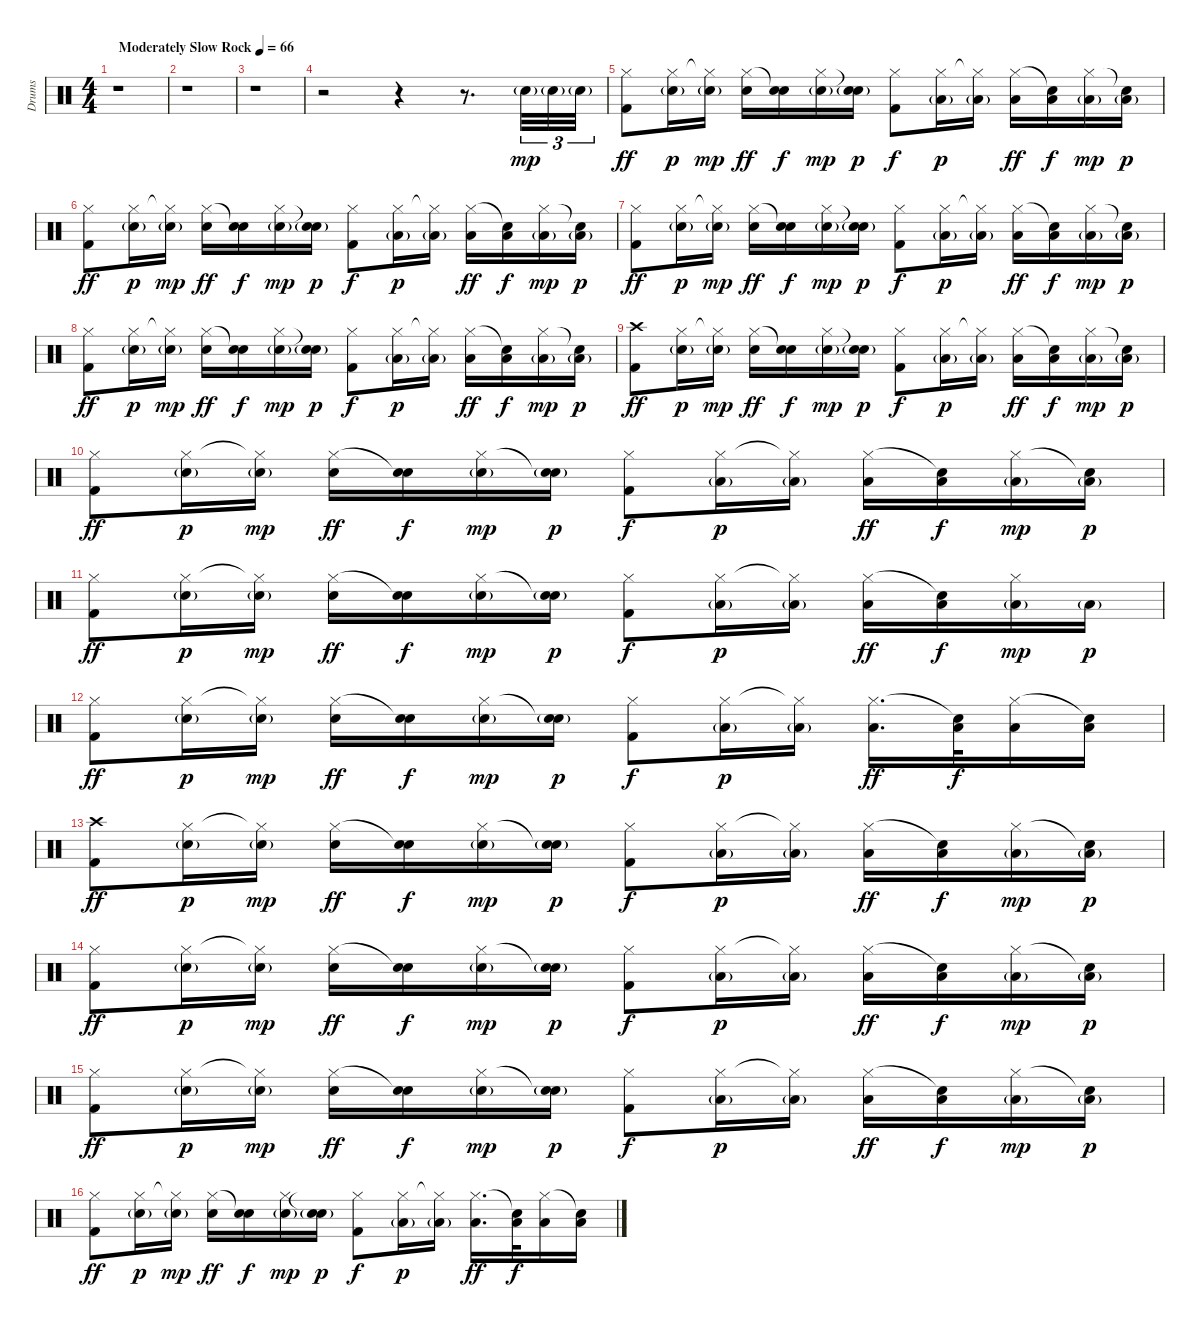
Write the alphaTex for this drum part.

\track ("Drums" "Drums") {instrument percussion}
\staff {score}
\articulation defaults
\ts (4 4)
\tempo (66 "Moderately Slow Rock")
\clef neutral
\ks c
r.1{dy mp} |
r.1 |
r.1 |
r.2 r.4 r.8{d} "Snare (hit) 2"{g}.32{tu (3 2)} "Snare (hit) 2"{g}.32{tu (3 2)} "Snare (hit) 2"{g}.32{tu (3 2)} |
("Hi-Hat (closed)" "Kick (hit) 2").8{dy ff} ("Hi-Hat (closed)" "Snare (hit) 2"{g}).16{dy p} ("Hi-Hat (closed)"{t} "Snare (hit) 2"{g}).16{dy mp} ("Hi-Hat (closed)" "Snare (hit) 2").16{dy ff} ("Snare (hit)"{t} "Snare (hit) 2").16{dy f} ("Hi-Hat (closed)" "Snare (hit) 2"{g}).16{dy mp} ("Snare (hit)"{t} "Snare (hit) 2"{g}).16{dy p} ("Hi-Hat (closed)" "Kick (hit) 2").8{dy f} ("Hi-Hat (closed)" "Low Floor Tom (hit)"{g}).16{dy p} ("Hi-Hat (closed)"{t} "Low Floor Tom (hit)"{g}).16 ("Hi-Hat (closed)" "Low Floor Tom (hit)").16{dy ff} ("Snare (hit)"{t} "Low Floor Tom (hit)").16{dy f} ("Hi-Hat (closed)" "Low Floor Tom (hit)"{g}).16{dy mp} ("Snare (hit)"{t} "Low Floor Tom (hit)"{g}).16{dy p} |
("Hi-Hat (closed)" "Kick (hit) 2").8{dy ff} ("Hi-Hat (closed)" "Snare (hit) 2"{g}).16{dy p} ("Hi-Hat (closed)"{t} "Snare (hit) 2"{g}).16{dy mp} ("Hi-Hat (closed)" "Snare (hit) 2").16{dy ff} ("Snare (hit)"{t} "Snare (hit) 2").16{dy f} ("Hi-Hat (closed)" "Snare (hit) 2"{g}).16{dy mp} ("Snare (hit)"{t} "Snare (hit) 2"{g}).16{dy p} ("Hi-Hat (closed)" "Kick (hit) 2").8{dy f} ("Hi-Hat (closed)" "Low Floor Tom (hit)"{g}).16{dy p} ("Hi-Hat (closed)"{t} "Low Floor Tom (hit)"{g}).16 ("Hi-Hat (closed)" "Low Floor Tom (hit)").16{dy ff} ("Snare (hit)"{t} "Low Floor Tom (hit)").16{dy f} ("Hi-Hat (closed)" "Low Floor Tom (hit)"{g}).16{dy mp} ("Snare (hit)"{t} "Low Floor Tom (hit)"{g}).16{dy p} |
("Hi-Hat (closed)" "Kick (hit) 2").8{dy ff} ("Hi-Hat (closed)" "Snare (hit) 2"{g}).16{dy p} ("Hi-Hat (closed)"{t} "Snare (hit) 2"{g}).16{dy mp} ("Hi-Hat (closed)" "Snare (hit) 2").16{dy ff} ("Snare (hit)"{t} "Snare (hit) 2").16{dy f} ("Hi-Hat (closed)" "Snare (hit) 2"{g}).16{dy mp} ("Snare (hit)"{t} "Snare (hit) 2"{g}).16{dy p} ("Hi-Hat (closed)" "Kick (hit) 2").8{dy f} ("Hi-Hat (closed)" "Low Floor Tom (hit)"{g}).16{dy p} ("Hi-Hat (closed)"{t} "Low Floor Tom (hit)"{g}).16 ("Hi-Hat (closed)" "Low Floor Tom (hit)").16{dy ff} ("Snare (hit)"{t} "Low Floor Tom (hit)").16{dy f} ("Hi-Hat (closed)" "Low Floor Tom (hit)"{g}).16{dy mp} ("Snare (hit)"{t} "Low Floor Tom (hit)"{g}).16{dy p} |
("Hi-Hat (closed)" "Kick (hit) 2").8{dy ff} ("Hi-Hat (closed)" "Snare (hit) 2"{g}).16{dy p} ("Hi-Hat (closed)"{t} "Snare (hit) 2"{g}).16{dy mp} ("Hi-Hat (closed)" "Snare (hit) 2").16{dy ff} ("Snare (hit)"{t} "Snare (hit) 2").16{dy f} ("Hi-Hat (closed)" "Snare (hit) 2"{g}).16{dy mp} ("Snare (hit)"{t} "Snare (hit) 2"{g}).16{dy p} ("Hi-Hat (closed)" "Kick (hit) 2").8{dy f} ("Hi-Hat (closed)" "Low Floor Tom (hit)"{g}).16{dy p} ("Hi-Hat (closed)"{t} "Low Floor Tom (hit)"{g}).16 ("Hi-Hat (closed)" "Low Floor Tom (hit)").16{dy ff} ("Snare (hit)"{t} "Low Floor Tom (hit)").16{dy f} ("Hi-Hat (closed)" "Low Floor Tom (hit)"{g}).16{dy mp} ("Snare (hit)"{t} "Low Floor Tom (hit)"{g}).16{dy p} |
("Crash high (hit)" "Kick (hit) 2").8{dy ff} ("Hi-Hat (closed)" "Snare (hit) 2"{g}).16{dy p} ("Hi-Hat (closed)"{t} "Snare (hit) 2"{g}).16{dy mp} ("Hi-Hat (closed)" "Snare (hit) 2").16{dy ff} ("Snare (hit)"{t} "Snare (hit) 2").16{dy f} ("Hi-Hat (closed)" "Snare (hit) 2"{g}).16{dy mp} ("Snare (hit)"{t} "Snare (hit) 2"{g}).16{dy p} ("Hi-Hat (closed)" "Kick (hit) 2").8{dy f} ("Hi-Hat (closed)" "Low Floor Tom (hit)"{g}).16{dy p} ("Hi-Hat (closed)"{t} "Low Floor Tom (hit)"{g}).16 ("Hi-Hat (closed)" "Low Floor Tom (hit)").16{dy ff} ("Snare (hit)"{t} "Low Floor Tom (hit)").16{dy f} ("Hi-Hat (closed)" "Low Floor Tom (hit)"{g}).16{dy mp} ("Snare (hit)"{t} "Low Floor Tom (hit)"{g}).16{dy p} |
("Hi-Hat (closed)" "Kick (hit) 2").8{dy ff} ("Hi-Hat (closed)" "Snare (hit) 2"{g}).16{dy p} ("Hi-Hat (closed)"{t} "Snare (hit) 2"{g}).16{dy mp} ("Hi-Hat (closed)" "Snare (hit) 2").16{dy ff} ("Snare (hit)"{t} "Snare (hit) 2").16{dy f} ("Hi-Hat (closed)" "Snare (hit) 2"{g}).16{dy mp} ("Snare (hit)"{t} "Snare (hit) 2"{g}).16{dy p} ("Hi-Hat (closed)" "Kick (hit) 2").8{dy f} ("Hi-Hat (closed)" "Low Floor Tom (hit)"{g}).16{dy p} ("Hi-Hat (closed)"{t} "Low Floor Tom (hit)"{g}).16 ("Hi-Hat (closed)" "Low Floor Tom (hit)").16{dy ff} ("Snare (hit)"{t} "Low Floor Tom (hit)").16{dy f} ("Hi-Hat (closed)" "Low Floor Tom (hit)"{g}).16{dy mp} ("Snare (hit)"{t} "Low Floor Tom (hit)"{g}).16{dy p} |
("Hi-Hat (closed)" "Kick (hit) 2").8{dy ff} ("Hi-Hat (closed)" "Snare (hit) 2"{g}).16{dy p} ("Hi-Hat (closed)"{t} "Snare (hit) 2"{g}).16{dy mp} ("Hi-Hat (closed)" "Snare (hit) 2").16{dy ff} ("Snare (hit)"{t} "Snare (hit) 2").16{dy f} ("Hi-Hat (closed)" "Snare (hit) 2"{g}).16{dy mp} ("Snare (hit)"{t} "Snare (hit) 2"{g}).16{dy p} ("Hi-Hat (closed)" "Kick (hit) 2").8{dy f} ("Hi-Hat (closed)" "Low Floor Tom (hit)"{g}).16{dy p} ("Hi-Hat (closed)"{t} "Low Floor Tom (hit)"{g}).16 ("Hi-Hat (closed)" "Low Floor Tom (hit)").16{dy ff} ("Snare (hit)"{t} "Low Floor Tom (hit)").16{dy f} ("Hi-Hat (closed)" "Low Floor Tom (hit)"{g}).16{dy mp} "Low Floor Tom (hit)"{g}.16{dy p} |
("Hi-Hat (closed)" "Kick (hit) 2").8{dy ff} ("Hi-Hat (closed)" "Snare (hit) 2"{g}).16{dy p} ("Hi-Hat (closed)"{t} "Snare (hit) 2"{g}).16{dy mp} ("Hi-Hat (closed)" "Snare (hit) 2").16{dy ff} ("Snare (hit)"{t} "Snare (hit) 2").16{dy f} ("Hi-Hat (closed)" "Snare (hit) 2"{g}).16{dy mp} ("Snare (hit)"{t} "Snare (hit) 2"{g}).16{dy p} ("Hi-Hat (closed)" "Kick (hit) 2").8{dy f} ("Hi-Hat (closed)" "Low Floor Tom (hit)"{g}).16{dy p} ("Hi-Hat (closed)"{t} "Low Floor Tom (hit)"{g}).16 ("Hi-Hat (closed)" "Low Floor Tom (hit)").16{d dy ff} ("Snare (hit)"{t} "Low Floor Tom (hit)").32{dy f} ("Hi-Hat (closed)" "Low Floor Tom (hit)").16 ("Snare (hit)"{t} "Low Floor Tom (hit)").16 |
("Crash high (hit)" "Kick (hit) 2").8{dy ff} ("Hi-Hat (closed)" "Snare (hit) 2"{g}).16{dy p} ("Hi-Hat (closed)"{t} "Snare (hit) 2"{g}).16{dy mp} ("Hi-Hat (closed)" "Snare (hit) 2").16{dy ff} ("Snare (hit)"{t} "Snare (hit) 2").16{dy f} ("Hi-Hat (closed)" "Snare (hit) 2"{g}).16{dy mp} ("Snare (hit)"{t} "Snare (hit) 2"{g}).16{dy p} ("Hi-Hat (closed)" "Kick (hit) 2").8{dy f} ("Hi-Hat (closed)" "Low Floor Tom (hit)"{g}).16{dy p} ("Hi-Hat (closed)"{t} "Low Floor Tom (hit)"{g}).16 ("Hi-Hat (closed)" "Low Floor Tom (hit)").16{dy ff} ("Snare (hit)"{t} "Low Floor Tom (hit)").16{dy f} ("Hi-Hat (closed)" "Low Floor Tom (hit)"{g}).16{dy mp} ("Snare (hit)"{t} "Low Floor Tom (hit)"{g}).16{dy p} |
("Hi-Hat (closed)" "Kick (hit) 2").8{dy ff} ("Hi-Hat (closed)" "Snare (hit) 2"{g}).16{dy p} ("Hi-Hat (closed)"{t} "Snare (hit) 2"{g}).16{dy mp} ("Hi-Hat (closed)" "Snare (hit) 2").16{dy ff} ("Snare (hit)"{t} "Snare (hit) 2").16{dy f} ("Hi-Hat (closed)" "Snare (hit) 2"{g}).16{dy mp} ("Snare (hit)"{t} "Snare (hit) 2"{g}).16{dy p} ("Hi-Hat (closed)" "Kick (hit) 2").8{dy f} ("Hi-Hat (closed)" "Low Floor Tom (hit)"{g}).16{dy p} ("Hi-Hat (closed)"{t} "Low Floor Tom (hit)"{g}).16 ("Hi-Hat (closed)" "Low Floor Tom (hit)").16{dy ff} ("Snare (hit)"{t} "Low Floor Tom (hit)").16{dy f} ("Hi-Hat (closed)" "Low Floor Tom (hit)"{g}).16{dy mp} ("Snare (hit)"{t} "Low Floor Tom (hit)"{g}).16{dy p} |
("Hi-Hat (closed)" "Kick (hit) 2").8{dy ff} ("Hi-Hat (closed)" "Snare (hit) 2"{g}).16{dy p} ("Hi-Hat (closed)"{t} "Snare (hit) 2"{g}).16{dy mp} ("Hi-Hat (closed)" "Snare (hit) 2").16{dy ff} ("Snare (hit)"{t} "Snare (hit) 2").16{dy f} ("Hi-Hat (closed)" "Snare (hit) 2"{g}).16{dy mp} ("Snare (hit)"{t} "Snare (hit) 2"{g}).16{dy p} ("Hi-Hat (closed)" "Kick (hit) 2").8{dy f} ("Hi-Hat (closed)" "Low Floor Tom (hit)"{g}).16{dy p} ("Hi-Hat (closed)"{t} "Low Floor Tom (hit)"{g}).16 ("Hi-Hat (closed)" "Low Floor Tom (hit)").16{dy ff} ("Snare (hit)"{t} "Low Floor Tom (hit)").16{dy f} ("Hi-Hat (closed)" "Low Floor Tom (hit)"{g}).16{dy mp} ("Snare (hit)"{t} "Low Floor Tom (hit)"{g}).16{dy p} |
("Hi-Hat (closed)" "Kick (hit) 2").8{dy ff} ("Hi-Hat (closed)" "Snare (hit) 2"{g}).16{dy p} ("Hi-Hat (closed)"{t} "Snare (hit) 2"{g}).16{dy mp} ("Hi-Hat (closed)" "Snare (hit) 2").16{dy ff} ("Snare (hit)"{t} "Snare (hit) 2").16{dy f} ("Hi-Hat (closed)" "Snare (hit) 2"{g}).16{dy mp} ("Snare (hit)"{t} "Snare (hit) 2"{g}).16{dy p} ("Hi-Hat (closed)" "Kick (hit) 2").8{dy f} ("Hi-Hat (closed)" "Low Floor Tom (hit)"{g}).16{dy p} ("Hi-Hat (closed)"{t} "Low Floor Tom (hit)"{g}).16 ("Hi-Hat (closed)" "Low Floor Tom (hit)").16{d dy ff} ("Snare (hit)"{t} "Low Floor Tom (hit)").32{dy f} ("Hi-Hat (closed)" "Low Floor Tom (hit)").16 ("Snare (hit)"{t} "Low Floor Tom (hit)").16
